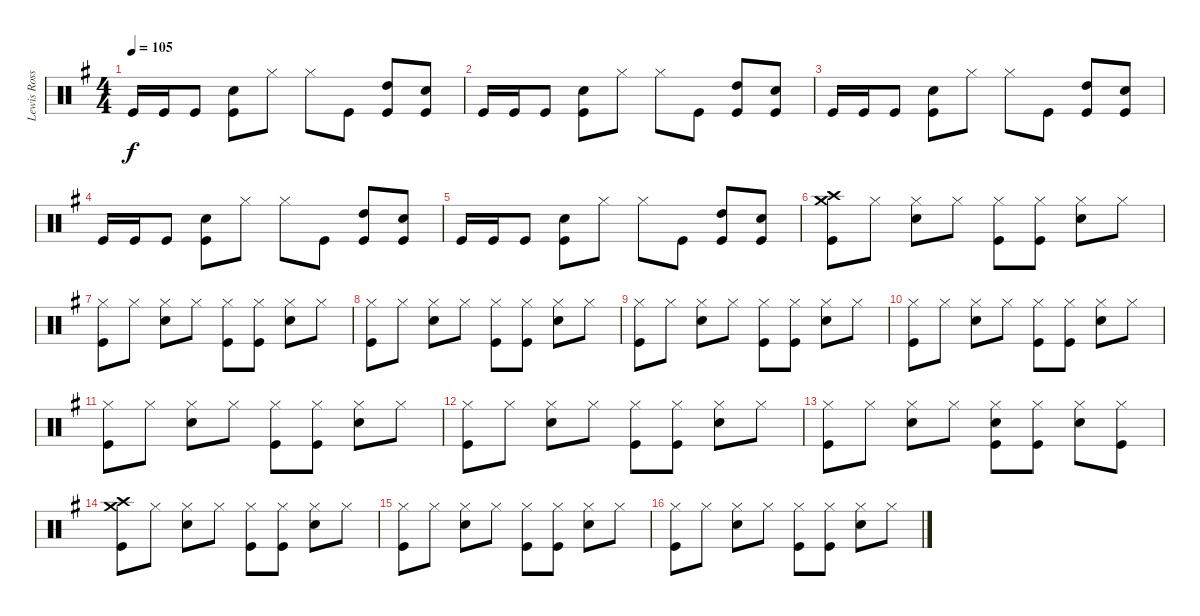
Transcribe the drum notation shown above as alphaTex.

\track ("Lewis Ross Drums" "Lewis Ross") {instrument percussion}
\staff {score}
\articulation defaults
\ts (4 4)
\tempo 105
\clef neutral
\ks g "Kick (hit)".16{dy f} "Kick (hit)".16 "Kick (hit)".8
("Snare (hit) 2" "Kick (hit)").8 "Hi-Hat (closed)".8 "Hi-Hat (closed)".8 "Kick (hit)".8 ("High Tom (hit)" "Kick (hit)").8 ("Snare (hit) 2" "Kick (hit)").8 |
"Kick (hit)".16 "Kick (hit)".16 "Kick (hit)".8 ("Snare (hit) 2" "Kick (hit)").8 "Hi-Hat (closed)".8 "Hi-Hat (closed)".8 "Kick (hit)".8 ("High Tom (hit)" "Kick (hit)").8 ("Snare (hit) 2" "Kick (hit)").8 |
"Kick (hit)".16 "Kick (hit)".16 "Kick (hit)".8 ("Snare (hit) 2" "Kick (hit)").8 "Hi-Hat (closed)".8 "Hi-Hat (closed)".8 "Kick (hit)".8 ("High Tom (hit)" "Kick (hit)").8 ("Snare (hit) 2" "Kick (hit)").8 |
"Kick (hit)".16 "Kick (hit)".16 "Kick (hit)".8 ("Snare (hit) 2" "Kick (hit)").8 "Hi-Hat (closed)".8 "Hi-Hat (closed)".8 "Kick (hit)".8 ("High Tom (hit)" "Kick (hit)").8 ("Snare (hit) 2" "Kick (hit)").8 |
"Kick (hit)".16 "Kick (hit)".16 "Kick (hit)".8 ("Snare (hit) 2" "Kick (hit)").8 "Hi-Hat (closed)".8 "Hi-Hat (closed)".8 "Kick (hit)".8 ("High Tom (hit)" "Kick (hit)").8 ("Snare (hit) 2" "Kick (hit)").8 |
("Crash high (hit)" "Crash medium (hit)" "Kick (hit)").8 "Hi-Hat (closed)".8 ("Hi-Hat (closed)" "Snare (hit) 2").8 "Hi-Hat (closed)".8 ("Hi-Hat (closed)" "Kick (hit)").8 ("Hi-Hat (closed)" "Kick (hit)").8 ("Hi-Hat (closed)" "Snare (hit) 2").8 "Hi-Hat (closed)".8 |
("Hi-Hat (closed)" "Kick (hit)").8 "Hi-Hat (closed)".8 ("Hi-Hat (closed)" "Snare (hit) 2").8 "Hi-Hat (closed)".8 ("Hi-Hat (closed)" "Kick (hit)").8 ("Hi-Hat (closed)" "Kick (hit)").8 ("Hi-Hat (closed)" "Snare (hit) 2").8 "Hi-Hat (closed)".8 |
("Hi-Hat (closed)" "Kick (hit)").8 "Hi-Hat (closed)".8 ("Hi-Hat (closed)" "Snare (hit) 2").8 "Hi-Hat (closed)".8 ("Hi-Hat (closed)" "Kick (hit)").8 ("Hi-Hat (closed)" "Kick (hit)").8 ("Hi-Hat (closed)" "Snare (hit) 2").8 "Hi-Hat (closed)".8 |
("Hi-Hat (closed)" "Kick (hit)").8 "Hi-Hat (closed)".8 ("Hi-Hat (closed)" "Snare (hit) 2").8 "Hi-Hat (closed)".8 ("Hi-Hat (closed)" "Kick (hit)").8 ("Hi-Hat (closed)" "Kick (hit)").8 ("Hi-Hat (closed)" "Snare (hit) 2").8 "Hi-Hat (closed)".8 |
("Hi-Hat (closed)" "Kick (hit)").8 "Hi-Hat (closed)".8 ("Hi-Hat (closed)" "Snare (hit) 2").8 "Hi-Hat (closed)".8 ("Hi-Hat (closed)" "Kick (hit)").8 ("Hi-Hat (closed)" "Kick (hit)").8 ("Hi-Hat (closed)" "Snare (hit) 2").8 "Hi-Hat (closed)".8 |
("Hi-Hat (closed)" "Kick (hit)").8 "Hi-Hat (closed)".8 ("Hi-Hat (closed)" "Snare (hit) 2").8 "Hi-Hat (closed)".8 ("Hi-Hat (closed)" "Kick (hit)").8 ("Hi-Hat (closed)" "Kick (hit)").8 ("Hi-Hat (closed)" "Snare (hit) 2").8 "Hi-Hat (closed)".8 |
("Hi-Hat (closed)" "Kick (hit)").8 "Hi-Hat (closed)".8 ("Hi-Hat (closed)" "Snare (hit) 2").8 "Hi-Hat (closed)".8 ("Hi-Hat (closed)" "Kick (hit)").8 ("Hi-Hat (closed)" "Kick (hit)").8 ("Hi-Hat (closed)" "Snare (hit) 2").8 "Hi-Hat (closed)".8 |
("Hi-Hat (closed)" "Kick (hit)").8 "Hi-Hat (closed)".8 ("Hi-Hat (closed)" "Snare (hit) 2").8 "Hi-Hat (closed)".8 ("Hi-Hat (closed)" "Snare (hit) 2" "Kick (hit)").8 ("Hi-Hat (closed)" "Kick (hit)").8 ("Hi-Hat (closed)" "Snare (hit) 2").8 ("Hi-Hat (closed)" "Kick (hit)").8 |
("Crash high (hit)" "Crash medium (hit)" "Kick (hit)").8 "Hi-Hat (closed)".8 ("Hi-Hat (closed)" "Snare (hit) 2").8 "Hi-Hat (closed)".8 ("Hi-Hat (closed)" "Kick (hit)").8 ("Hi-Hat (closed)" "Kick (hit)").8 ("Hi-Hat (closed)" "Snare (hit) 2").8 "Hi-Hat (closed)".8 |
("Hi-Hat (closed)" "Kick (hit)").8 "Hi-Hat (closed)".8 ("Hi-Hat (closed)" "Snare (hit) 2").8 "Hi-Hat (closed)".8 ("Hi-Hat (closed)" "Kick (hit)").8 ("Hi-Hat (closed)" "Kick (hit)").8 ("Hi-Hat (closed)" "Snare (hit) 2").8 "Hi-Hat (closed)".8 |
("Hi-Hat (closed)" "Kick (hit)").8 "Hi-Hat (closed)".8 ("Hi-Hat (closed)" "Snare (hit) 2").8 "Hi-Hat (closed)".8 ("Hi-Hat (closed)" "Kick (hit)").8 ("Hi-Hat (closed)" "Kick (hit)").8 ("Hi-Hat (closed)" "Snare (hit) 2").8 "Hi-Hat (closed)".8
